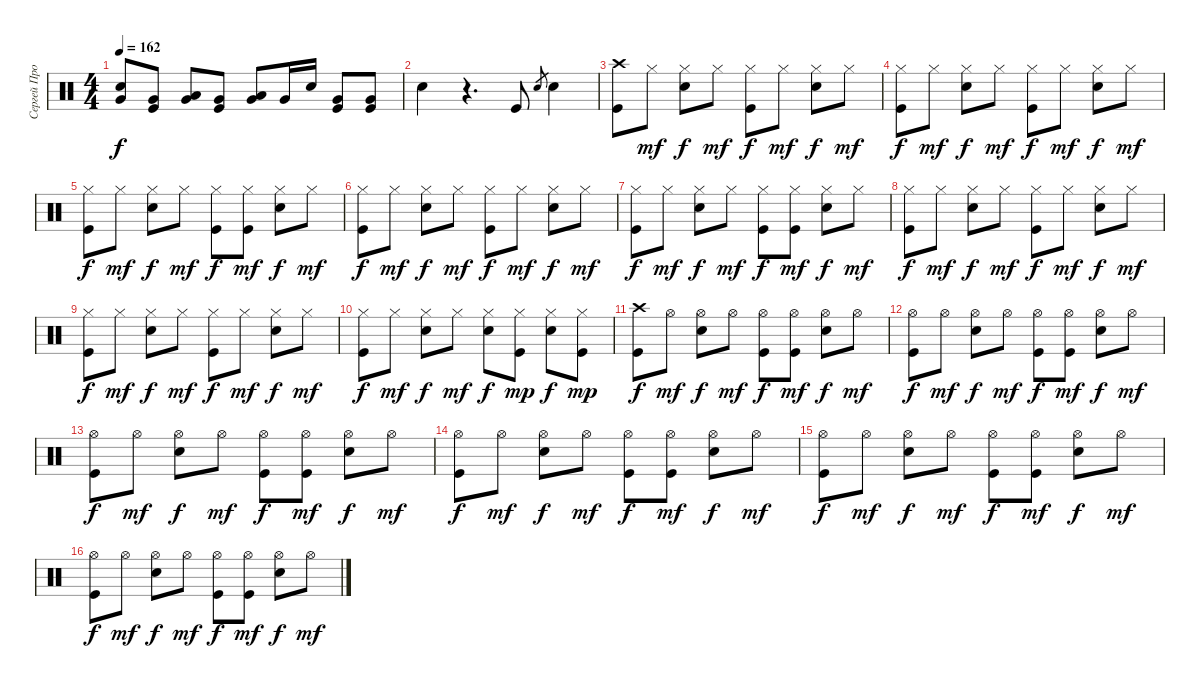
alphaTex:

\track ("Сергей Прокофьев" "Сергей Про") {instrument percussion}
\staff {score}
\articulation defaults
\ts (4 4)
\tempo 162
\clef neutral
\ks c
("Very Low Tom (hit)" "Electric Snare (hit)").8{dy f} ("Very Low Tom (hit)" "Kick (hit)").8 ("Very Low Tom (hit)" "Low Tom (hit)").8 ("Very Low Tom (hit)" "Kick (hit)").8 ("Very Low Tom (hit)" "Low Tom (hit)").8 "Very Low Tom (hit)".16 "Electric Snare (hit)".16 ("Very Low Tom (hit)" "Kick (hit)").8 ("Very Low Tom (hit)" "Kick (hit)").8 |
"Electric Snare (hit)".4 r.4{d} "Kick (hit)".8 "Electric Snare (hit)".8{gr} "Electric Snare (hit)".4 |
("Crash high (hit)" "Kick (hit)").8 "Hi-Hat (closed)".8{dy mf} ("Hi-Hat (closed)" "Electric Snare (hit)").8{dy f} "Hi-Hat (closed)".8{dy mf} ("Hi-Hat (closed)" "Kick (hit)").8{dy f} "Hi-Hat (closed)".8{dy mf} ("Hi-Hat (closed)" "Electric Snare (hit)").8{dy f} "Hi-Hat (closed)".8{dy mf} |
("Hi-Hat (closed)" "Kick (hit)").8{dy f} "Hi-Hat (closed)".8{dy mf} ("Hi-Hat (closed)" "Electric Snare (hit)").8{dy f} "Hi-Hat (closed)".8{dy mf} ("Hi-Hat (closed)" "Kick (hit)").8{dy f} "Hi-Hat (closed)".8{dy mf} ("Hi-Hat (closed)" "Electric Snare (hit)").8{dy f} "Hi-Hat (closed)".8{dy mf} |
("Hi-Hat (closed)" "Kick (hit)").8{dy f} "Hi-Hat (closed)".8{dy mf} ("Hi-Hat (closed)" "Electric Snare (hit)").8{dy f} "Hi-Hat (closed)".8{dy mf} ("Hi-Hat (closed)" "Kick (hit)").8{dy f} ("Hi-Hat (closed)" "Kick (hit)").8{dy mf} ("Hi-Hat (closed)" "Electric Snare (hit)").8{dy f} "Hi-Hat (closed)".8{dy mf} |
("Hi-Hat (closed)" "Kick (hit)").8{dy f} "Hi-Hat (closed)".8{dy mf} ("Hi-Hat (closed)" "Electric Snare (hit)").8{dy f} "Hi-Hat (closed)".8{dy mf} ("Hi-Hat (closed)" "Kick (hit)").8{dy f} "Hi-Hat (closed)".8{dy mf} ("Hi-Hat (closed)" "Electric Snare (hit)").8{dy f} "Hi-Hat (closed)".8{dy mf} |
("Hi-Hat (closed)" "Kick (hit)").8{dy f} "Hi-Hat (closed)".8{dy mf} ("Hi-Hat (closed)" "Electric Snare (hit)").8{dy f} "Hi-Hat (closed)".8{dy mf} ("Hi-Hat (closed)" "Kick (hit)").8{dy f} ("Hi-Hat (closed)" "Kick (hit)").8{dy mf} ("Hi-Hat (closed)" "Electric Snare (hit)").8{dy f} "Hi-Hat (closed)".8{dy mf} |
("Hi-Hat (closed)" "Kick (hit)").8{dy f} "Hi-Hat (closed)".8{dy mf} ("Hi-Hat (closed)" "Electric Snare (hit)").8{dy f} "Hi-Hat (closed)".8{dy mf} ("Hi-Hat (closed)" "Kick (hit)").8{dy f} "Hi-Hat (closed)".8{dy mf} ("Hi-Hat (closed)" "Electric Snare (hit)").8{dy f} "Hi-Hat (closed)".8{dy mf} |
("Hi-Hat (closed)" "Kick (hit)").8{dy f} "Hi-Hat (closed)".8{dy mf} ("Hi-Hat (closed)" "Electric Snare (hit)").8{dy f} "Hi-Hat (closed)".8{dy mf} ("Hi-Hat (closed)" "Kick (hit)").8{dy f} "Hi-Hat (closed)".8{dy mf} ("Hi-Hat (closed)" "Electric Snare (hit)").8{dy f} "Hi-Hat (closed)".8{dy mf} |
("Hi-Hat (closed)" "Kick (hit)").8{dy f} "Hi-Hat (closed)".8{dy mf} ("Hi-Hat (closed)" "Electric Snare (hit)").8{dy f} "Hi-Hat (closed)".8{dy mf} ("Hi-Hat (closed)" "Electric Snare (hit)").8{dy f} ("Hi-Hat (closed)" "Kick (hit)").8{dy mp} ("Hi-Hat (closed)" "Electric Snare (hit)").8{dy f} ("Hi-Hat (closed)" "Kick (hit)").8{dy mp} |
("Crash high (hit)" "Kick (hit)").8{dy f} "Hi-Hat (open)".8{dy mf} ("Hi-Hat (open)" "Electric Snare (hit)").8{dy f} "Hi-Hat (open)".8{dy mf} ("Hi-Hat (open)" "Kick (hit)").8{dy f} ("Hi-Hat (open)" "Kick (hit)").8{dy mf} ("Hi-Hat (open)" "Electric Snare (hit)").8{dy f} "Hi-Hat (open)".8{dy mf} |
("Hi-Hat (open)" "Kick (hit)").8{dy f} "Hi-Hat (open)".8{dy mf} ("Hi-Hat (open)" "Electric Snare (hit)").8{dy f} "Hi-Hat (open)".8{dy mf} ("Hi-Hat (open)" "Kick (hit)").8{dy f} ("Hi-Hat (open)" "Kick (hit)").8{dy mf} ("Hi-Hat (open)" "Electric Snare (hit)").8{dy f} "Hi-Hat (open)".8{dy mf} |
("Hi-Hat (open)" "Kick (hit)").8{dy f} "Hi-Hat (open)".8{dy mf} ("Hi-Hat (open)" "Electric Snare (hit)").8{dy f} "Hi-Hat (open)".8{dy mf} ("Hi-Hat (open)" "Kick (hit)").8{dy f} ("Hi-Hat (open)" "Kick (hit)").8{dy mf} ("Hi-Hat (open)" "Electric Snare (hit)").8{dy f} "Hi-Hat (open)".8{dy mf} |
("Hi-Hat (open)" "Kick (hit)").8{dy f} "Hi-Hat (open)".8{dy mf} ("Hi-Hat (open)" "Electric Snare (hit)").8{dy f} "Hi-Hat (open)".8{dy mf} ("Hi-Hat (open)" "Kick (hit)").8{dy f} ("Hi-Hat (open)" "Kick (hit)").8{dy mf} ("Hi-Hat (open)" "Electric Snare (hit)").8{dy f} "Hi-Hat (open)".8{dy mf} |
("Hi-Hat (open)" "Kick (hit)").8{dy f} "Hi-Hat (open)".8{dy mf} ("Hi-Hat (open)" "Electric Snare (hit)").8{dy f} "Hi-Hat (open)".8{dy mf} ("Hi-Hat (open)" "Kick (hit)").8{dy f} ("Hi-Hat (open)" "Kick (hit)").8{dy mf} ("Hi-Hat (open)" "Electric Snare (hit)").8{dy f} "Hi-Hat (open)".8{dy mf} |
("Hi-Hat (open)" "Kick (hit)").8{dy f} "Hi-Hat (open)".8{dy mf} ("Hi-Hat (open)" "Electric Snare (hit)").8{dy f} "Hi-Hat (open)".8{dy mf} ("Hi-Hat (open)" "Kick (hit)").8{dy f} ("Hi-Hat (open)" "Kick (hit)").8{dy mf} ("Hi-Hat (open)" "Electric Snare (hit)").8{dy f} "Hi-Hat (open)".8{dy mf}
